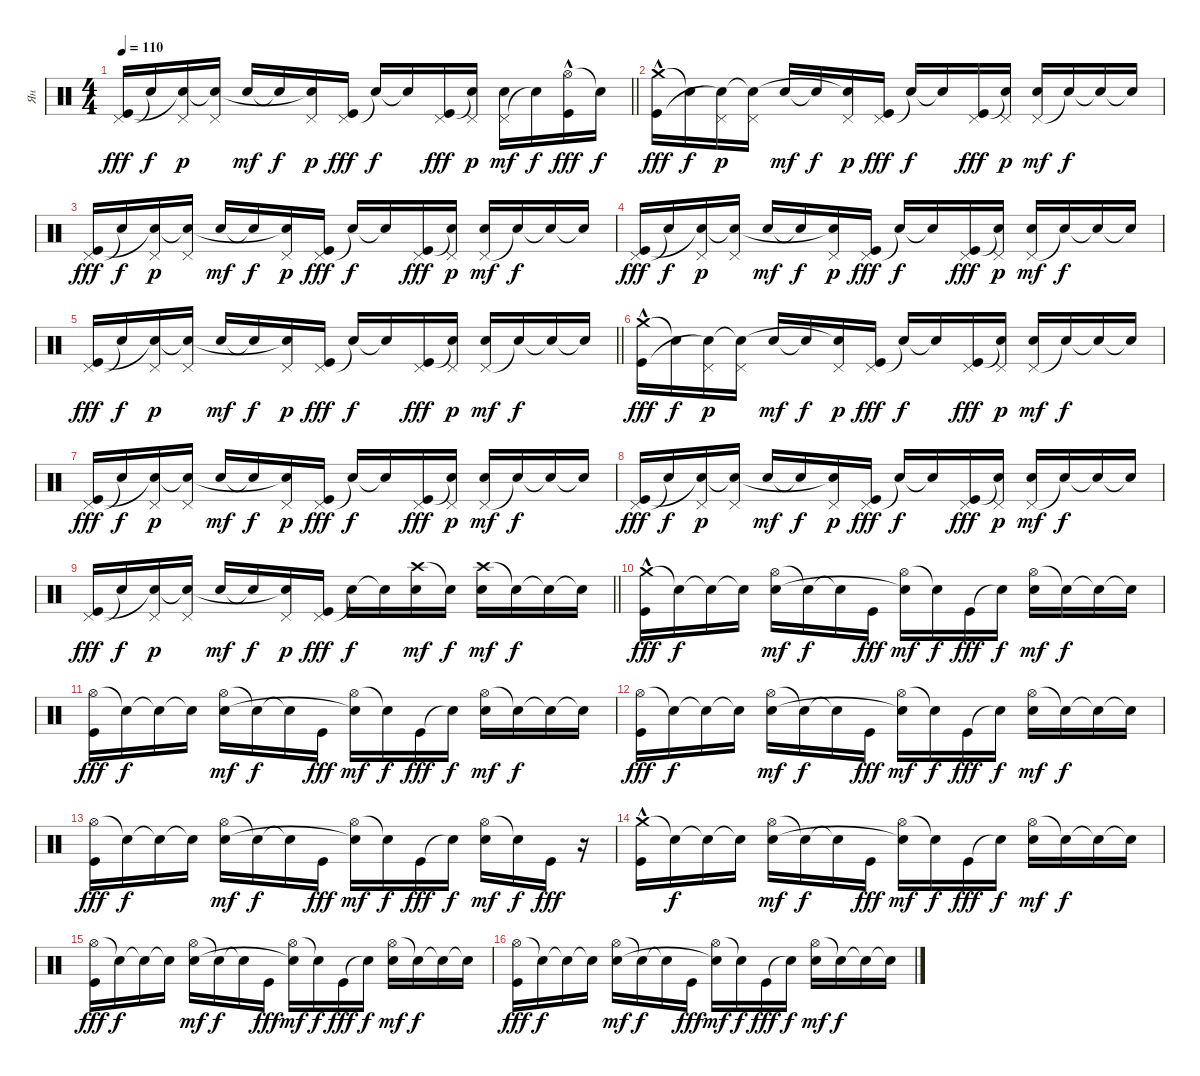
\track ("Ян " "Ян ") {instrument percussion}
\staff
\articulation defaults
\ts (4 4)
\tempo 110
\clef neutral
\barLineRight lightlight
\ks c
("Pedal Hi-Hat (hit)" "Kick (hit)").16{dy fff} "Snare (hit)"{t}.16{dy f} ("Pedal Hi-Hat (hit)" "Snare (hit)"{t}).16{dy p} ("Pedal Hi-Hat (hit)" "Snare (hit)"{t}).16 "Snare (hit) 2".16{dy mf} "Snare (hit)"{t}.16{dy f} ("Pedal Hi-Hat (hit)" "Snare (hit)"{t}).16{dy p} ("Pedal Hi-Hat (hit)" "Kick (hit)").16{dy fff} "Snare (hit)"{t}.16{dy f} "Snare (hit)"{t}.16 ("Pedal Hi-Hat (hit)" "Kick (hit)").16{dy fff} ("Pedal Hi-Hat (hit)" "Snare (hit)"{t}).16{dy p} ("Pedal Hi-Hat (hit)" "Snare (hit) 2").16{dy mf} "Snare (hit)"{t}.16{dy f} ("Hi-Hat (open)" "Kick (hit)"{hac}).16{dy fff} "Snare (hit)"{t}.16{dy f} |
("Crash medium (hit)" "Kick (hit)"{hac}).16{dy fff} "Snare (hit)"{t}.16{dy f} ("Pedal Hi-Hat (hit)" "Snare (hit)"{t}).16{dy p} ("Pedal Hi-Hat (hit)" "Snare (hit)"{t}).16 "Snare (hit) 2".16{dy mf} "Snare (hit)"{t}.16{dy f} ("Pedal Hi-Hat (hit)" "Snare (hit)"{t}).16{dy p} ("Pedal Hi-Hat (hit)" "Kick (hit)").16{dy fff} "Snare (hit)"{t}.16{dy f} "Snare (hit)"{t}.16 ("Pedal Hi-Hat (hit)" "Kick (hit)").16{dy fff} ("Pedal Hi-Hat (hit)" "Snare (hit)"{t}).16{dy p} ("Pedal Hi-Hat (hit)" "Snare (hit) 2").16{dy mf} "Snare (hit)"{t}.16{dy f} "Snare (hit)"{t}.16 "Snare (hit)"{t}.16 |
("Pedal Hi-Hat (hit)" "Kick (hit)").16{dy fff} "Snare (hit)"{t}.16{dy f} ("Pedal Hi-Hat (hit)" "Snare (hit)"{t}).16{dy p} ("Pedal Hi-Hat (hit)" "Snare (hit)"{t}).16 "Snare (hit) 2".16{dy mf} "Snare (hit)"{t}.16{dy f} ("Pedal Hi-Hat (hit)" "Snare (hit)"{t}).16{dy p} ("Pedal Hi-Hat (hit)" "Kick (hit)").16{dy fff} "Snare (hit)"{t}.16{dy f} "Snare (hit)"{t}.16 ("Pedal Hi-Hat (hit)" "Kick (hit)").16{dy fff} ("Pedal Hi-Hat (hit)" "Snare (hit)"{t}).16{dy p} ("Pedal Hi-Hat (hit)" "Snare (hit) 2").16{dy mf} "Snare (hit)"{t}.16{dy f} "Snare (hit)"{t}.16 "Snare (hit)"{t}.16 |
("Pedal Hi-Hat (hit)" "Kick (hit)").16{dy fff} "Snare (hit)"{t}.16{dy f} ("Pedal Hi-Hat (hit)" "Snare (hit)"{t}).16{dy p} ("Pedal Hi-Hat (hit)" "Snare (hit)"{t}).16 "Snare (hit) 2".16{dy mf} "Snare (hit)"{t}.16{dy f} ("Pedal Hi-Hat (hit)" "Snare (hit)"{t}).16{dy p} ("Pedal Hi-Hat (hit)" "Kick (hit)").16{dy fff} "Snare (hit)"{t}.16{dy f} "Snare (hit)"{t}.16 ("Pedal Hi-Hat (hit)" "Kick (hit)").16{dy fff} ("Pedal Hi-Hat (hit)" "Snare (hit)"{t}).16{dy p} ("Pedal Hi-Hat (hit)" "Snare (hit) 2").16{dy mf} "Snare (hit)"{t}.16{dy f} "Snare (hit)"{t}.16 "Snare (hit)"{t}.16 |
\barLineRight lightlight
("Pedal Hi-Hat (hit)" "Kick (hit)").16{dy fff} "Snare (hit)"{t}.16{dy f} ("Pedal Hi-Hat (hit)" "Snare (hit)"{t}).16{dy p} ("Pedal Hi-Hat (hit)" "Snare (hit)"{t}).16 "Snare (hit) 2".16{dy mf} "Snare (hit)"{t}.16{dy f} ("Pedal Hi-Hat (hit)" "Snare (hit)"{t}).16{dy p} ("Pedal Hi-Hat (hit)" "Kick (hit)").16{dy fff} "Snare (hit)"{t}.16{dy f} "Snare (hit)"{t}.16 ("Pedal Hi-Hat (hit)" "Kick (hit)").16{dy fff} ("Pedal Hi-Hat (hit)" "Snare (hit)"{t}).16{dy p} ("Pedal Hi-Hat (hit)" "Snare (hit) 2").16{dy mf} "Snare (hit)"{t}.16{dy f} "Snare (hit)"{t}.16 "Snare (hit)"{t}.16 |
("Crash medium (hit)" "Kick (hit)"{hac}).16{dy fff} "Snare (hit)"{t}.16{dy f} ("Pedal Hi-Hat (hit)" "Snare (hit)"{t}).16{dy p} ("Pedal Hi-Hat (hit)" "Snare (hit)"{t}).16 "Snare (hit) 2".16{dy mf} "Snare (hit)"{t}.16{dy f} ("Pedal Hi-Hat (hit)" "Snare (hit)"{t}).16{dy p} ("Pedal Hi-Hat (hit)" "Kick (hit)").16{dy fff} "Snare (hit)"{t}.16{dy f} "Snare (hit)"{t}.16 ("Pedal Hi-Hat (hit)" "Kick (hit)").16{dy fff} ("Pedal Hi-Hat (hit)" "Snare (hit)"{t}).16{dy p} ("Pedal Hi-Hat (hit)" "Snare (hit) 2").16{dy mf} "Snare (hit)"{t}.16{dy f} "Snare (hit)"{t}.16 "Snare (hit)"{t}.16 |
("Pedal Hi-Hat (hit)" "Kick (hit)").16{dy fff} "Snare (hit)"{t}.16{dy f} ("Pedal Hi-Hat (hit)" "Snare (hit)"{t}).16{dy p} ("Pedal Hi-Hat (hit)" "Snare (hit)"{t}).16 "Snare (hit) 2".16{dy mf} "Snare (hit)"{t}.16{dy f} ("Pedal Hi-Hat (hit)" "Snare (hit)"{t}).16{dy p} ("Pedal Hi-Hat (hit)" "Kick (hit)").16{dy fff} "Snare (hit)"{t}.16{dy f} "Snare (hit)"{t}.16 ("Pedal Hi-Hat (hit)" "Kick (hit)").16{dy fff} ("Pedal Hi-Hat (hit)" "Snare (hit)"{t}).16{dy p} ("Pedal Hi-Hat (hit)" "Snare (hit) 2").16{dy mf} "Snare (hit)"{t}.16{dy f} "Snare (hit)"{t}.16 "Snare (hit)"{t}.16 |
("Pedal Hi-Hat (hit)" "Kick (hit)").16{dy fff} "Snare (hit)"{t}.16{dy f} ("Pedal Hi-Hat (hit)" "Snare (hit)"{t}).16{dy p} ("Pedal Hi-Hat (hit)" "Snare (hit)"{t}).16 "Snare (hit) 2".16{dy mf} "Snare (hit)"{t}.16{dy f} ("Pedal Hi-Hat (hit)" "Snare (hit)"{t}).16{dy p} ("Pedal Hi-Hat (hit)" "Kick (hit)").16{dy fff} "Snare (hit)"{t}.16{dy f} "Snare (hit)"{t}.16 ("Pedal Hi-Hat (hit)" "Kick (hit)").16{dy fff} ("Pedal Hi-Hat (hit)" "Snare (hit)"{t}).16{dy p} ("Pedal Hi-Hat (hit)" "Snare (hit) 2").16{dy mf} "Snare (hit)"{t}.16{dy f} "Snare (hit)"{t}.16 "Snare (hit)"{t}.16 |
\barLineRight lightlight
("Pedal Hi-Hat (hit)" "Kick (hit)").16{dy fff} "Snare (hit)"{t}.16{dy f} ("Pedal Hi-Hat (hit)" "Snare (hit)"{t}).16{dy p} ("Pedal Hi-Hat (hit)" "Snare (hit)"{t}).16 "Snare (hit) 2".16{dy mf} "Snare (hit)"{t}.16{dy f} ("Pedal Hi-Hat (hit)" "Snare (hit)"{t}).16{dy p} ("Pedal Hi-Hat (hit)" "Kick (hit)").16{dy fff} "Snare (hit)"{t}.16{dy f} "Snare (hit)"{t}.16 ("Crash high (hit)" "Snare (hit) 2").16{dy mf} "Snare (hit)"{t}.16{dy f} ("Crash high (hit)" "Snare (hit) 2").16{dy mf} "Snare (hit)"{t}.16{dy f} "Snare (hit)"{t}.16 "Snare (hit)"{t}.16 |
("Crash medium (hit)" "Kick (hit)"{hac}).16{dy fff} "Snare (hit)"{t}.16{dy f} "Snare (hit)"{t}.16 "Snare (hit)"{t}.16 ("Hi-Hat (open)" "Snare (hit) 2").16{dy mf} "Snare (hit)"{t}.16{dy f} "Snare (hit)"{t}.16 "Kick (hit)".16{dy fff} ("Hi-Hat (open)" "Snare (hit)"{t}).16{dy mf} "Snare (hit)"{t}.16{dy f} "Kick (hit)".16{dy fff} "Snare (hit)"{t}.16{dy f} ("Hi-Hat (open)" "Snare (hit) 2").16{dy mf} "Snare (hit)"{t}.16{dy f} "Snare (hit)"{t}.16 "Snare (hit)"{t}.16 |
("Hi-Hat (open)" "Kick (hit)").16{dy fff} "Snare (hit)"{t}.16{dy f} "Snare (hit)"{t}.16 "Snare (hit)"{t}.16 ("Hi-Hat (open)" "Snare (hit) 2").16{dy mf} "Snare (hit)"{t}.16{dy f} "Snare (hit)"{t}.16 "Kick (hit)".16{dy fff} ("Hi-Hat (open)" "Snare (hit)"{t}).16{dy mf} "Snare (hit)"{t}.16{dy f} "Kick (hit)".16{dy fff} "Snare (hit)"{t}.16{dy f} ("Hi-Hat (open)" "Snare (hit) 2").16{dy mf} "Snare (hit)"{t}.16{dy f} "Snare (hit)"{t}.16 "Snare (hit)"{t}.16 |
("Hi-Hat (open)" "Kick (hit)").16{dy fff} "Snare (hit)"{t}.16{dy f} "Snare (hit)"{t}.16 "Snare (hit)"{t}.16 ("Hi-Hat (open)" "Snare (hit) 2").16{dy mf} "Snare (hit)"{t}.16{dy f} "Snare (hit)"{t}.16 "Kick (hit)".16{dy fff} ("Hi-Hat (open)" "Snare (hit)"{t}).16{dy mf} "Snare (hit)"{t}.16{dy f} "Kick (hit)".16{dy fff} "Snare (hit)"{t}.16{dy f} ("Hi-Hat (open)" "Snare (hit) 2").16{dy mf} "Snare (hit)"{t}.16{dy f} "Snare (hit)"{t}.16 "Snare (hit)"{t}.16 |
("Hi-Hat (open)" "Kick (hit)").16{dy fff} "Snare (hit)"{t}.16{dy f} "Snare (hit)"{t}.16 "Snare (hit)"{t}.16 ("Hi-Hat (open)" "Snare (hit) 2").16{dy mf} "Snare (hit)"{t}.16{dy f} "Snare (hit)"{t}.16 "Kick (hit)".16{dy fff} ("Hi-Hat (open)" "Snare (hit)"{t}).16{dy mf} "Snare (hit)"{t}.16{dy f} "Kick (hit)".16{dy fff} "Snare (hit)"{t}.16{dy f} ("Hi-Hat (open)" "Snare (hit) 2").16{dy mf} "Snare (hit)"{t}.16{dy f} "Kick (hit)".16{dy fff} r.16 |
("Crash medium (hit)" "Kick (hit)"{hac}).16 "Snare (hit)"{t}.16{dy f} "Snare (hit)"{t}.16 "Snare (hit)"{t}.16 ("Hi-Hat (open)" "Snare (hit) 2").16{dy mf} "Snare (hit)"{t}.16{dy f} "Snare (hit)"{t}.16 "Kick (hit)".16{dy fff} ("Hi-Hat (open)" "Snare (hit)"{t}).16{dy mf} "Snare (hit)"{t}.16{dy f} "Kick (hit)".16{dy fff} "Snare (hit)"{t}.16{dy f} ("Hi-Hat (open)" "Snare (hit) 2").16{dy mf} "Snare (hit)"{t}.16{dy f} "Snare (hit)"{t}.16 "Snare (hit)"{t}.16 |
("Hi-Hat (open)" "Kick (hit)").16{dy fff} "Snare (hit)"{t}.16{dy f} "Snare (hit)"{t}.16 "Snare (hit)"{t}.16 ("Hi-Hat (open)" "Snare (hit) 2").16{dy mf} "Snare (hit)"{t}.16{dy f} "Snare (hit)"{t}.16 "Kick (hit)".16{dy fff} ("Hi-Hat (open)" "Snare (hit)"{t}).16{dy mf} "Snare (hit)"{t}.16{dy f} "Kick (hit)".16{dy fff} "Snare (hit)"{t}.16{dy f} ("Hi-Hat (open)" "Snare (hit) 2").16{dy mf} "Snare (hit)"{t}.16{dy f} "Snare (hit)"{t}.16 "Snare (hit)"{t}.16 |
("Hi-Hat (open)" "Kick (hit)").16{dy fff} "Snare (hit)"{t}.16{dy f} "Snare (hit)"{t}.16 "Snare (hit)"{t}.16 ("Hi-Hat (open)" "Snare (hit) 2").16{dy mf} "Snare (hit)"{t}.16{dy f} "Snare (hit)"{t}.16 "Kick (hit)".16{dy fff} ("Hi-Hat (open)" "Snare (hit)"{t}).16{dy mf} "Snare (hit)"{t}.16{dy f} "Kick (hit)".16{dy fff} "Snare (hit)"{t}.16{dy f} ("Hi-Hat (open)" "Snare (hit) 2").16{dy mf} "Snare (hit)"{t}.16{dy f} "Snare (hit)"{t}.16 "Snare (hit)"{t}.16
